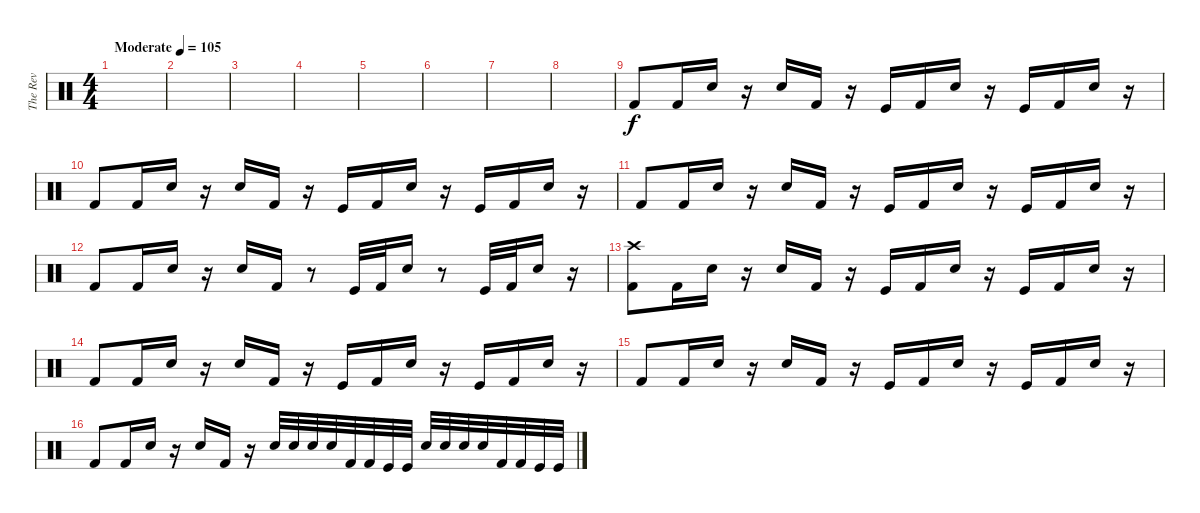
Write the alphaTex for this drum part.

\track ("The Rev" "The Rev") {instrument percussion}
\staff {score}
\articulation defaults
\ts (4 4)
\tempo (105 "Moderate")
\clef neutral
\ks c
|
|
|
|
|
|
|
|
"Kick (hit) 2".8 "Kick (hit) 2".16 "Snare (hit) 2".16 r.16 "Snare (hit) 2".16 "Kick (hit) 2".16 r.16 "Kick (hit)".16 "Kick (hit) 2".16 "Snare (hit) 2".16 r.16 "Kick (hit)".16 "Kick (hit) 2".16 "Snare (hit) 2".16 r.16 |
"Kick (hit) 2".8 "Kick (hit) 2".16 "Snare (hit) 2".16 r.16 "Snare (hit) 2".16 "Kick (hit) 2".16 r.16 "Kick (hit)".16 "Kick (hit) 2".16 "Snare (hit) 2".16 r.16 "Kick (hit)".16 "Kick (hit) 2".16 "Snare (hit) 2".16 r.16 |
"Kick (hit) 2".8 "Kick (hit) 2".16 "Snare (hit) 2".16 r.16 "Snare (hit) 2".16 "Kick (hit) 2".16 r.16 "Kick (hit)".16 "Kick (hit) 2".16 "Snare (hit) 2".16 r.16 "Kick (hit)".16 "Kick (hit) 2".16 "Snare (hit) 2".16 r.16 |
"Kick (hit) 2".8 "Kick (hit) 2".16 "Snare (hit) 2".16 r.16 "Snare (hit) 2".16 "Kick (hit) 2".16 r.8 "Kick (hit)".32 "Kick (hit) 2".32 "Snare (hit) 2".16 r.8 "Kick (hit)".32 "Kick (hit) 2".32 "Snare (hit) 2".16 r.16 |
("Kick (hit) 2" "Crash high (hit)").8 "Kick (hit) 2".16 "Snare (hit) 2".16 r.16 "Snare (hit) 2".16 "Kick (hit) 2".16 r.16 "Kick (hit)".16 "Kick (hit) 2".16 "Snare (hit) 2".16 r.16 "Kick (hit)".16 "Kick (hit) 2".16 "Snare (hit) 2".16 r.16 |
"Kick (hit) 2".8 "Kick (hit) 2".16 "Snare (hit) 2".16 r.16 "Snare (hit) 2".16 "Kick (hit) 2".16 r.16 "Kick (hit)".16 "Kick (hit) 2".16 "Snare (hit) 2".16 r.16 "Kick (hit)".16 "Kick (hit) 2".16 "Snare (hit) 2".16 r.16 |
"Kick (hit) 2".8 "Kick (hit) 2".16 "Snare (hit) 2".16 r.16 "Snare (hit) 2".16 "Kick (hit) 2".16 r.16 "Kick (hit)".16 "Kick (hit) 2".16 "Snare (hit) 2".16 r.16 "Kick (hit)".16 "Kick (hit) 2".16 "Snare (hit) 2".16 r.16 |
"Kick (hit) 2".8 "Kick (hit) 2".16 "Snare (hit) 2".16 r.16 "Snare (hit) 2".16 "Kick (hit) 2".16 r.16 "Electric Snare (hit)".32 "Electric Snare (hit)".32 "Snare (hit) 2".32 "Snare (hit) 2".32 "Kick (hit) 2".32 "Kick (hit) 2".32 "Kick (hit)".32 "Kick (hit)".32 "Electric Snare (hit)".32 "Electric Snare (hit)".32 "Snare (hit) 2".32 "Snare (hit) 2".32 "Kick (hit) 2".32 "Kick (hit) 2".32 "Kick (hit)".32 "Kick (hit)".32
